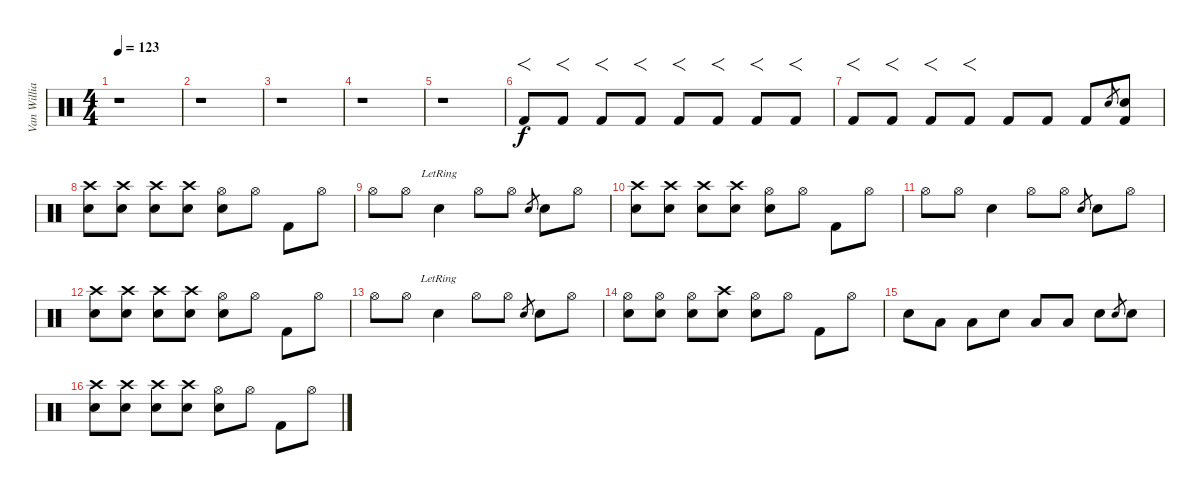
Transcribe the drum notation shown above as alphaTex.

\track ("Van Williams" "Van Willia") {instrument percussion}
\staff {score}
\articulation defaults
\ts (4 4)
\tempo 123
\clef neutral
\ks c
r.1{dy f} |
r.1 |
r.1 |
r.1 |
r.1 |
"Kick (hit) 2".8{f} "Kick (hit) 2".8{f} "Kick (hit) 2".8{f} "Kick (hit) 2".8{f} "Kick (hit) 2".8{f} "Kick (hit) 2".8{f} "Kick (hit) 2".8{f} "Kick (hit) 2".8{f} |
"Kick (hit) 2".8{f} "Kick (hit) 2".8{f} "Kick (hit) 2".8{f} "Kick (hit) 2".8{f} "Kick (hit) 2".8 "Kick (hit) 2".8 "Kick (hit) 2".8 "Electric Snare (hit)".8{gr} ("Electric Snare (hit)" "Kick (hit) 2").8 |
("Crash high (hit)" "Electric Snare (hit)").8 ("Crash high (hit)" "Electric Snare (hit)").8 ("Crash high (hit)" "Electric Snare (hit)").8 ("Crash high (hit)" "Electric Snare (hit)").8 ("Hi-Hat (open)" "Electric Snare (hit)").8 "Hi-Hat (open)".8 "Kick (hit) 2".8 "Hi-Hat (open)".8 |
"Hi-Hat (open)".8 "Hi-Hat (open)".8 "Electric Snare (hit)"{lr}.4 "Hi-Hat (open)".8 "Hi-Hat (open)".8 "Electric Snare (hit)".8{gr} "Electric Snare (hit)".8 "Hi-Hat (open)".8 |
("Crash high (hit)" "Electric Snare (hit)").8 ("Crash high (hit)" "Electric Snare (hit)").8 ("Crash high (hit)" "Electric Snare (hit)").8 ("Crash high (hit)" "Electric Snare (hit)").8 ("Hi-Hat (open)" "Electric Snare (hit)").8 "Hi-Hat (open)".8 "Kick (hit) 2".8 "Hi-Hat (open)".8 |
"Hi-Hat (open)".8 "Hi-Hat (open)".8 "Electric Snare (hit)".4 "Hi-Hat (open)".8 "Hi-Hat (open)".8 "Electric Snare (hit)".8{gr} "Electric Snare (hit)".8 "Hi-Hat (open)".8 |
("Crash high (hit)" "Electric Snare (hit)").8 ("Crash high (hit)" "Electric Snare (hit)").8 ("Crash high (hit)" "Electric Snare (hit)").8 ("Crash high (hit)" "Electric Snare (hit)").8 ("Hi-Hat (open)" "Electric Snare (hit)").8 "Hi-Hat (open)".8 "Kick (hit) 2".8 "Hi-Hat (open)".8 |
"Hi-Hat (open)".8 "Hi-Hat (open)".8 "Electric Snare (hit)"{lr}.4 "Hi-Hat (open)".8 "Hi-Hat (open)".8 "Electric Snare (hit)".8{gr} "Electric Snare (hit)".8 "Hi-Hat (open)".8 |
("Hi-Hat (open)" "Electric Snare (hit)").8 ("Hi-Hat (open)" "Electric Snare (hit)").8 ("Hi-Hat (open)" "Electric Snare (hit)").8 ("Crash high (hit)" "Electric Snare (hit)").8 ("Hi-Hat (open)" "Electric Snare (hit)").8 "Hi-Hat (open)".8 "Kick (hit) 2".8 "Hi-Hat (open)".8 |
"Electric Snare (hit)".8 "Low Floor Tom (hit)".8 "Low Floor Tom (hit)".8 "Electric Snare (hit)".8 "Low Floor Tom (hit)".8 "Low Floor Tom (hit)".8 "Electric Snare (hit)".8 "Electric Snare (hit)".8{gr} "Electric Snare (hit)".8 |
("Crash high (hit)" "Electric Snare (hit)").8 ("Crash high (hit)" "Electric Snare (hit)").8 ("Crash high (hit)" "Electric Snare (hit)").8 ("Crash high (hit)" "Electric Snare (hit)").8 ("Hi-Hat (open)" "Electric Snare (hit)").8 "Hi-Hat (open)".8 "Kick (hit) 2".8 "Hi-Hat (open)".8
